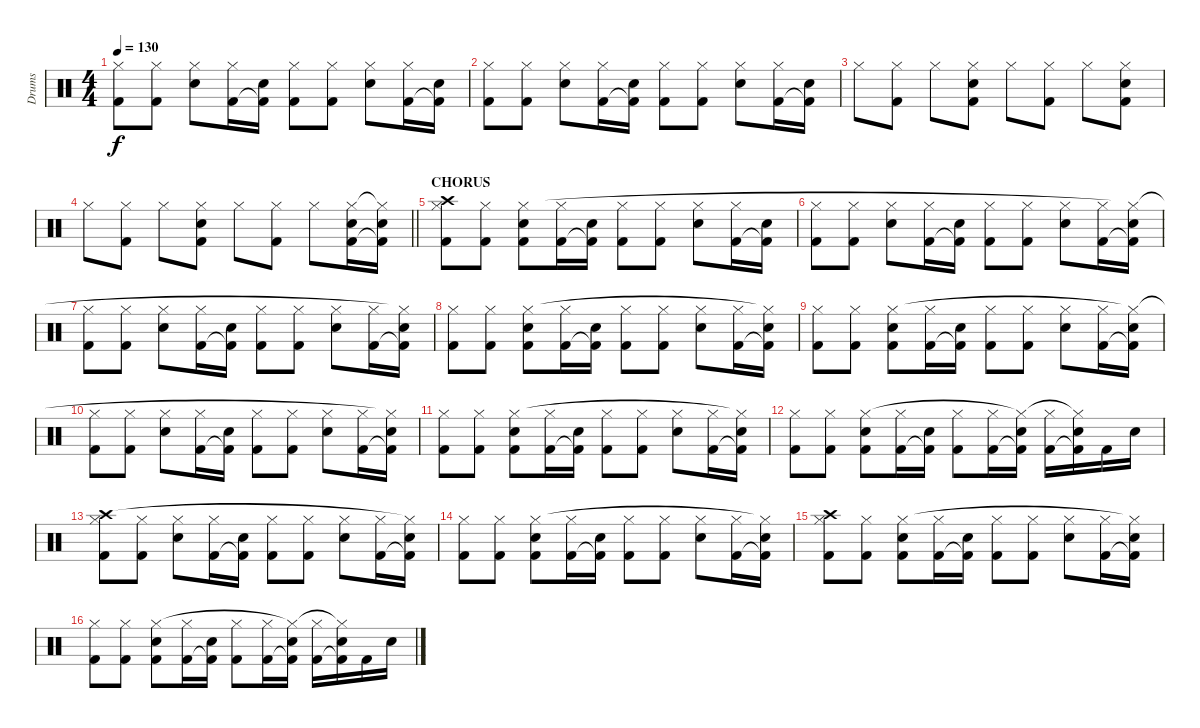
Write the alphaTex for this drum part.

\track ("Drums" "Drums") {instrument percussion}
\staff {score}
\articulation defaults
\ts (4 4)
\tempo 130
\clef neutral
\ks c
("Kick (hit) 2" "Hi-Hat (closed)").8{dy f} ("Kick (hit) 2" "Hi-Hat (closed)").8 ("Electric Snare (hit)" "Hi-Hat (closed)").8 ("Kick (hit) 2" "Hi-Hat (closed)").16 ("Kick (hit) 2"{t} "Electric Snare (hit)").16 ("Kick (hit) 2" "Hi-Hat (closed)").8 ("Kick (hit) 2" "Hi-Hat (closed)").8 ("Electric Snare (hit)" "Hi-Hat (closed)").8 ("Kick (hit) 2" "Hi-Hat (closed)").16 ("Kick (hit) 2"{t} "Electric Snare (hit)").16 |
("Kick (hit) 2" "Hi-Hat (closed)").8 ("Kick (hit) 2" "Hi-Hat (closed)").8 ("Electric Snare (hit)" "Hi-Hat (closed)").8 ("Kick (hit) 2" "Hi-Hat (closed)").16 ("Kick (hit) 2"{t} "Electric Snare (hit)").16 ("Kick (hit) 2" "Hi-Hat (closed)").8 ("Kick (hit) 2" "Hi-Hat (closed)").8 ("Electric Snare (hit)" "Hi-Hat (closed)").8 ("Kick (hit) 2" "Hi-Hat (closed)").16 ("Kick (hit) 2"{t} "Electric Snare (hit)").16 |
"Hi-Hat (closed)".8 ("Kick (hit) 2" "Hi-Hat (closed)").8 "Hi-Hat (closed)".8 ("Kick (hit) 2" "Electric Snare (hit)" "Hi-Hat (closed)").8 "Hi-Hat (closed)".8 ("Kick (hit) 2" "Hi-Hat (closed)").8 "Hi-Hat (closed)".8 ("Kick (hit) 2" "Electric Snare (hit)" "Hi-Hat (closed)").8 |
\barLineRight lightlight "Hi-Hat (closed)".8
("Kick (hit) 2" "Hi-Hat (closed)").8 "Hi-Hat (closed)".8 ("Kick (hit) 2" "Electric Snare (hit)" "Hi-Hat (closed)").8 "Hi-Hat (closed)".8 ("Kick (hit) 2" "Hi-Hat (closed)").8 "Hi-Hat (closed)".8 ("Kick (hit) 2" "Electric Snare (hit)" "Hi-Hat (closed)").16 ("Kick (hit) 2"{t} "Electric Snare (hit)" "Hi-Hat (closed)"{t}).16 |
\section ("" "CHORUS")
("Kick (hit) 2" "Hi-Hat (closed)" "Crash high (hit)").8 ("Kick (hit) 2" "Hi-Hat (closed)").8 ("Kick (hit) 2" "Electric Snare (hit)" "Hi-Hat (closed)").8 ("Kick (hit) 2" "Hi-Hat (closed)").16 ("Kick (hit) 2"{t} "Electric Snare (hit)").16 ("Kick (hit) 2" "Hi-Hat (closed)").8 ("Kick (hit) 2" "Hi-Hat (closed)").8 ("Electric Snare (hit)" "Hi-Hat (closed)").8 ("Kick (hit) 2" "Hi-Hat (closed)").16 ("Kick (hit) 2"{t} "Electric Snare (hit)").16 |
("Kick (hit) 2" "Hi-Hat (closed)").8 ("Kick (hit) 2" "Hi-Hat (closed)").8 ("Electric Snare (hit)" "Hi-Hat (closed)").8 ("Kick (hit) 2" "Hi-Hat (closed)").16 ("Kick (hit) 2"{t} "Electric Snare (hit)").16 ("Kick (hit) 2" "Hi-Hat (closed)").8 ("Kick (hit) 2" "Hi-Hat (closed)").8 ("Electric Snare (hit)" "Hi-Hat (closed)").8 ("Kick (hit) 2" "Hi-Hat (closed)").16 ("Kick (hit) 2"{t} "Electric Snare (hit)" "Hi-Hat (closed)"{t}).16 |
("Kick (hit) 2" "Hi-Hat (closed)").8 ("Kick (hit) 2" "Hi-Hat (closed)").8 ("Electric Snare (hit)" "Hi-Hat (closed)").8 ("Kick (hit) 2" "Hi-Hat (closed)").16 ("Kick (hit) 2"{t} "Electric Snare (hit)").16 ("Kick (hit) 2" "Hi-Hat (closed)").8 ("Kick (hit) 2" "Hi-Hat (closed)").8 ("Electric Snare (hit)" "Hi-Hat (closed)").8 ("Kick (hit) 2" "Hi-Hat (closed)").16 ("Kick (hit) 2"{t} "Electric Snare (hit)" "Hi-Hat (closed)"{t}).16 |
("Kick (hit) 2" "Hi-Hat (closed)").8 ("Kick (hit) 2" "Hi-Hat (closed)").8 ("Kick (hit) 2" "Electric Snare (hit)" "Hi-Hat (closed)").8 ("Kick (hit) 2" "Hi-Hat (closed)").16 ("Kick (hit) 2"{t} "Electric Snare (hit)").16 ("Kick (hit) 2" "Hi-Hat (closed)").8 ("Kick (hit) 2" "Hi-Hat (closed)").8 ("Electric Snare (hit)" "Hi-Hat (closed)").8 ("Kick (hit) 2" "Hi-Hat (closed)").16 ("Kick (hit) 2"{t} "Electric Snare (hit)" "Hi-Hat (closed)"{t}).16 |
("Kick (hit) 2" "Hi-Hat (closed)").8 ("Kick (hit) 2" "Hi-Hat (closed)").8 ("Kick (hit) 2" "Electric Snare (hit)" "Hi-Hat (closed)").8 ("Kick (hit) 2" "Hi-Hat (closed)").16 ("Kick (hit) 2"{t} "Electric Snare (hit)").16 ("Kick (hit) 2" "Hi-Hat (closed)").8 ("Kick (hit) 2" "Hi-Hat (closed)").8 ("Electric Snare (hit)" "Hi-Hat (closed)").8 ("Kick (hit) 2" "Hi-Hat (closed)").16 ("Kick (hit) 2"{t} "Electric Snare (hit)" "Hi-Hat (closed)"{t}).16 |
("Kick (hit) 2" "Hi-Hat (closed)").8 ("Kick (hit) 2" "Hi-Hat (closed)").8 ("Electric Snare (hit)" "Hi-Hat (closed)").8 ("Kick (hit) 2" "Hi-Hat (closed)").16 ("Kick (hit) 2"{t} "Electric Snare (hit)").16 ("Kick (hit) 2" "Hi-Hat (closed)").8 ("Kick (hit) 2" "Hi-Hat (closed)").8 ("Electric Snare (hit)" "Hi-Hat (closed)").8 ("Kick (hit) 2" "Hi-Hat (closed)").16 ("Kick (hit) 2"{t} "Electric Snare (hit)" "Hi-Hat (closed)"{t}).16 |
("Kick (hit) 2" "Hi-Hat (closed)").8 ("Kick (hit) 2" "Hi-Hat (closed)").8 ("Kick (hit) 2" "Electric Snare (hit)" "Hi-Hat (closed)").8 ("Kick (hit) 2" "Hi-Hat (closed)").16 ("Kick (hit) 2"{t} "Electric Snare (hit)").16 ("Kick (hit) 2" "Hi-Hat (closed)").8 ("Kick (hit) 2" "Hi-Hat (closed)").8 ("Electric Snare (hit)" "Hi-Hat (closed)").8 ("Kick (hit) 2" "Hi-Hat (closed)").16 ("Kick (hit) 2"{t} "Electric Snare (hit)" "Hi-Hat (closed)"{t}).16 |
("Kick (hit) 2" "Hi-Hat (closed)").8 ("Kick (hit) 2" "Hi-Hat (closed)").8 ("Kick (hit) 2" "Electric Snare (hit)" "Hi-Hat (closed)").8 ("Kick (hit) 2" "Hi-Hat (closed)").16 ("Kick (hit) 2"{t} "Electric Snare (hit)").16 ("Kick (hit) 2" "Hi-Hat (closed)").8 ("Kick (hit) 2" "Hi-Hat (closed)").16 ("Kick (hit) 2"{t} "Electric Snare (hit)" "Hi-Hat (closed)"{t}).16 ("Kick (hit) 2" "Hi-Hat (closed)").16 ("Kick (hit) 2"{t} "Electric Snare (hit)" "Hi-Hat (closed)"{t}).16 "Kick (hit) 2".16 "Electric Snare (hit)".16 |
("Kick (hit) 2" "Hi-Hat (closed)" "Crash high (hit)").8 ("Kick (hit) 2" "Hi-Hat (closed)").8 ("Electric Snare (hit)" "Hi-Hat (closed)").8 ("Kick (hit) 2" "Hi-Hat (closed)").16 ("Kick (hit) 2"{t} "Electric Snare (hit)").16 ("Kick (hit) 2" "Hi-Hat (closed)").8 ("Kick (hit) 2" "Hi-Hat (closed)").8 ("Electric Snare (hit)" "Hi-Hat (closed)").8 ("Kick (hit) 2" "Hi-Hat (closed)").16 ("Kick (hit) 2"{t} "Electric Snare (hit)" "Hi-Hat (closed)"{t}).16 |
("Kick (hit) 2" "Hi-Hat (closed)").8 ("Kick (hit) 2" "Hi-Hat (closed)").8 ("Kick (hit) 2" "Electric Snare (hit)" "Hi-Hat (closed)").8 ("Kick (hit) 2" "Hi-Hat (closed)").16 ("Kick (hit) 2"{t} "Electric Snare (hit)").16 ("Kick (hit) 2" "Hi-Hat (closed)").8 ("Kick (hit) 2" "Hi-Hat (closed)").8 ("Electric Snare (hit)" "Hi-Hat (closed)").8 ("Kick (hit) 2" "Hi-Hat (closed)").16 ("Kick (hit) 2"{t} "Electric Snare (hit)" "Hi-Hat (closed)"{t}).16 |
("Kick (hit) 2" "Hi-Hat (closed)" "Crash high (hit)").8 ("Kick (hit) 2" "Hi-Hat (closed)").8 ("Kick (hit) 2" "Electric Snare (hit)" "Hi-Hat (closed)").8 ("Kick (hit) 2" "Hi-Hat (closed)").16 ("Kick (hit) 2"{t} "Electric Snare (hit)").16 ("Kick (hit) 2" "Hi-Hat (closed)").8 ("Kick (hit) 2" "Hi-Hat (closed)").8 ("Electric Snare (hit)" "Hi-Hat (closed)").8 ("Kick (hit) 2" "Hi-Hat (closed)").16 ("Kick (hit) 2"{t} "Electric Snare (hit)" "Hi-Hat (closed)"{t}).16 |
("Kick (hit) 2" "Hi-Hat (closed)").8 ("Kick (hit) 2" "Hi-Hat (closed)").8 ("Kick (hit) 2" "Electric Snare (hit)" "Hi-Hat (closed)").8 ("Kick (hit) 2" "Hi-Hat (closed)").16 ("Kick (hit) 2"{t} "Electric Snare (hit)").16 ("Kick (hit) 2" "Hi-Hat (closed)").8 ("Kick (hit) 2" "Hi-Hat (closed)").16 ("Kick (hit) 2"{t} "Electric Snare (hit)" "Hi-Hat (closed)"{t}).16 ("Kick (hit) 2" "Hi-Hat (closed)").16 ("Kick (hit) 2"{t} "Electric Snare (hit)" "Hi-Hat (closed)"{t}).16 "Kick (hit) 2".16 "Electric Snare (hit)".16
